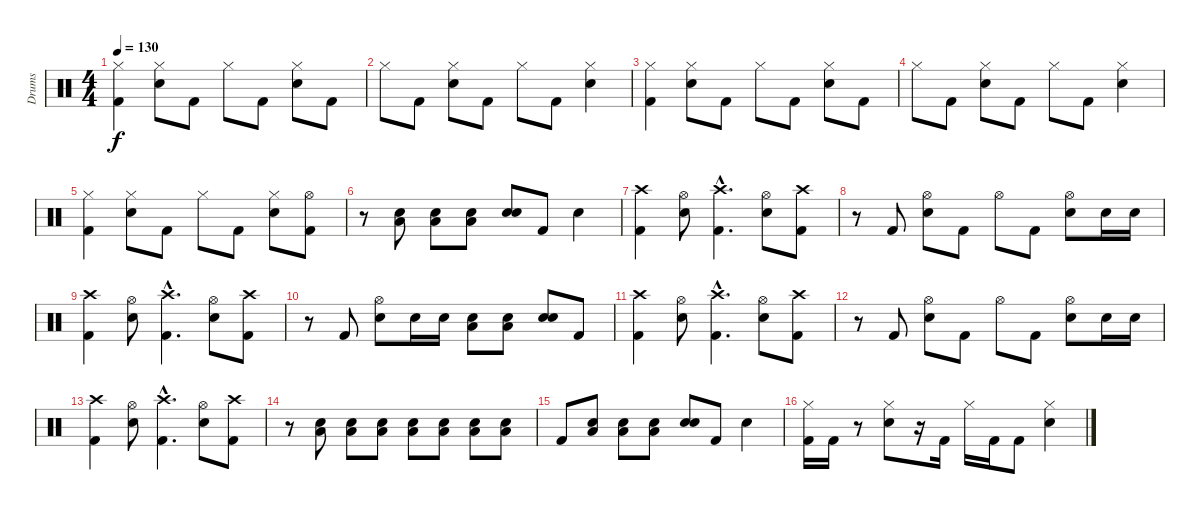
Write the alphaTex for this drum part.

\track ("Drums" "Drums") {instrument percussion}
\staff {score}
\articulation defaults
\ts (4 4)
\tempo 130
\clef neutral
\ks c
("Hi-Hat (closed)" "Kick (hit) 2").4{dy f} ("Hi-Hat (closed)" "Snare (hit) 2").8 "Kick (hit) 2".8 "Hi-Hat (closed)".8 "Kick (hit) 2".8 ("Hi-Hat (closed)" "Snare (hit) 2").8 "Kick (hit) 2".8 |
"Hi-Hat (closed)".8 "Kick (hit) 2".8 ("Hi-Hat (closed)" "Snare (hit) 2").8 "Kick (hit) 2".8 "Hi-Hat (closed)".8 "Kick (hit) 2".8 ("Hi-Hat (closed)" "Snare (hit) 2").4 |
("Hi-Hat (closed)" "Kick (hit) 2").4 ("Hi-Hat (closed)" "Snare (hit) 2").8 "Kick (hit) 2".8 "Hi-Hat (closed)".8 "Kick (hit) 2".8 ("Hi-Hat (closed)" "Snare (hit) 2").8 "Kick (hit) 2".8 |
"Hi-Hat (closed)".8 "Kick (hit) 2".8 ("Hi-Hat (closed)" "Snare (hit) 2").8 "Kick (hit) 2".8 "Hi-Hat (closed)".8 "Kick (hit) 2".8 ("Hi-Hat (closed)" "Snare (hit) 2").4 |
("Hi-Hat (closed)" "Kick (hit) 2").4 ("Hi-Hat (closed)" "Snare (hit) 2").8 "Kick (hit) 2".8 "Hi-Hat (closed)".8 "Kick (hit) 2".8 ("Hi-Hat (closed)" "Snare (hit) 2").8 ("Hi-Hat (open)" "Kick (hit) 2").8 |
r.8 ("Low Floor Tom (hit)" "Snare (hit) 2").8 ("Low Floor Tom (hit)" "Snare (hit) 2").8 ("Low Floor Tom (hit)" "Snare (hit) 2").8 ("Snare (hit) 2" "Snare (hit) 2").8{bd 240} "Kick (hit) 2".8 "Snare (hit) 2".4 |
("Crash high (hit)" "Kick (hit) 2").4 ("Hi-Hat (open)" "Snare (hit) 2").8 ("Crash high (hit)"{hac} "Kick (hit) 2"{hac}).4{d} ("Hi-Hat (open)" "Snare (hit) 2").8 ("Crash high (hit)" "Kick (hit) 2").8 |
r.8 "Kick (hit) 2".8 ("Hi-Hat (open)" "Snare (hit) 2").8 "Kick (hit) 2".8 "Hi-Hat (open)".8 "Kick (hit) 2".8 ("Hi-Hat (open)" "Snare (hit) 2").8 "Snare (hit) 2".16 "Snare (hit) 2".16 |
("Crash high (hit)" "Kick (hit) 2").4 ("Hi-Hat (open)" "Snare (hit) 2").8 ("Crash high (hit)"{hac} "Kick (hit) 2"{hac}).4{d} ("Hi-Hat (open)" "Snare (hit) 2").8 ("Crash high (hit)" "Kick (hit) 2").8 |
r.8 "Kick (hit) 2".8 ("Hi-Hat (open)" "Snare (hit) 2").8 "Snare (hit) 2".16 "Snare (hit) 2".16 ("Low Floor Tom (hit)" "Snare (hit) 2").8 ("Low Floor Tom (hit)" "Snare (hit) 2").8 ("Snare (hit) 2" "Snare (hit) 2").8{bd 240} "Kick (hit) 2".8 |
("Crash high (hit)" "Kick (hit) 2").4 ("Hi-Hat (open)" "Snare (hit) 2").8 ("Crash high (hit)"{hac} "Kick (hit) 2"{hac}).4{d} ("Hi-Hat (open)" "Snare (hit) 2").8 ("Crash high (hit)" "Kick (hit) 2").8 |
r.8 "Kick (hit) 2".8 ("Hi-Hat (open)" "Snare (hit) 2").8 "Kick (hit) 2".8 "Hi-Hat (open)".8 "Kick (hit) 2".8 ("Hi-Hat (open)" "Snare (hit) 2").8 "Snare (hit) 2".16 "Snare (hit) 2".16 |
("Crash high (hit)" "Kick (hit) 2").4 ("Hi-Hat (open)" "Snare (hit) 2").8 ("Crash high (hit)"{hac} "Kick (hit) 2"{hac}).4{d} ("Hi-Hat (open)" "Snare (hit) 2").8 ("Crash high (hit)" "Kick (hit) 2").8 |
r.8 ("Low Floor Tom (hit)" "Snare (hit) 2").8 ("Low Floor Tom (hit)" "Snare (hit) 2").8 ("Low Floor Tom (hit)" "Snare (hit) 2").8 ("Low Floor Tom (hit)" "Snare (hit) 2").8 ("Low Floor Tom (hit)" "Snare (hit) 2").8 ("Low Floor Tom (hit)" "Snare (hit) 2").8 ("Low Floor Tom (hit)" "Snare (hit) 2").8 |
"Kick (hit) 2".8 ("Low Floor Tom (hit)" "Snare (hit) 2").8 ("Low Floor Tom (hit)" "Snare (hit) 2").8 ("Low Floor Tom (hit)" "Snare (hit) 2").8 ("Snare (hit) 2" "Snare (hit) 2").8{bd 240} "Kick (hit) 2".8 "Snare (hit) 2".4 |
("Hi-Hat (closed)" "Kick (hit) 2").16 "Kick (hit) 2".16 r.8 ("Hi-Hat (closed)" "Snare (hit) 2").8 r.16 "Kick (hit) 2".16 "Hi-Hat (closed)".16 "Kick (hit) 2".16 "Kick (hit) 2".8 ("Hi-Hat (closed)" "Snare (hit) 2").4
